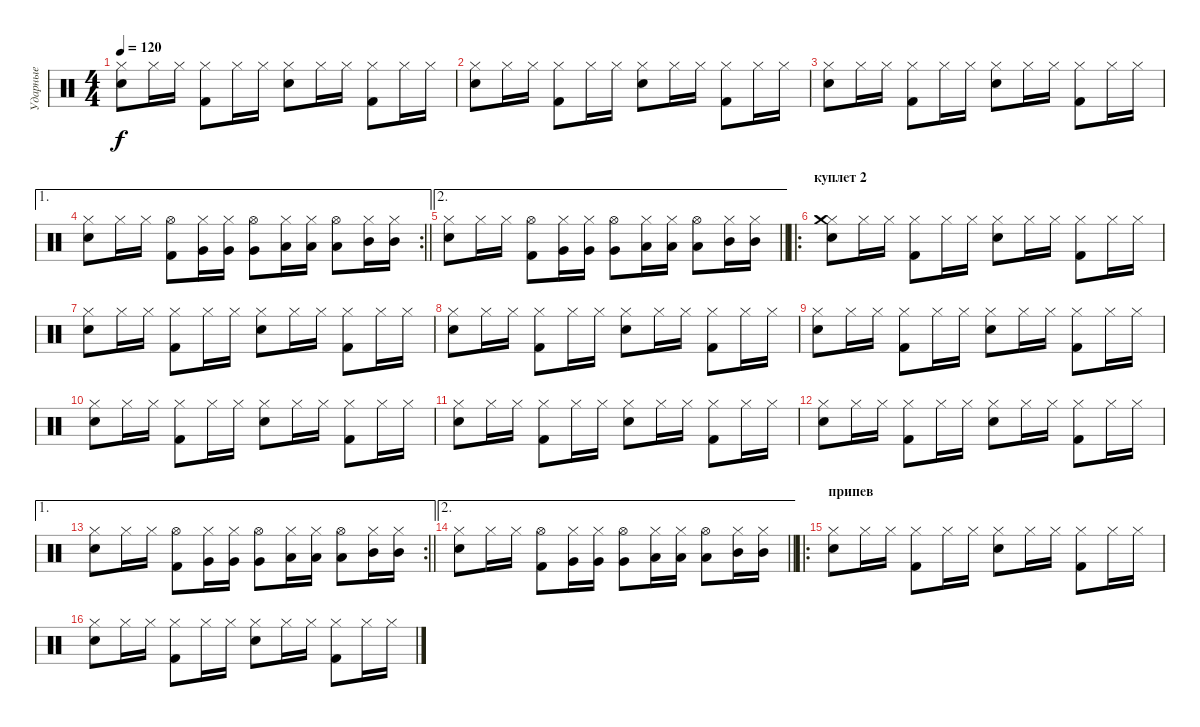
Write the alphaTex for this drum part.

\track ("Ударные" "Ударные") {instrument percussion}
\staff {score}
\articulation defaults
\ts (4 4)
\tempo 120
\clef neutral
\ks c
("Hi-Hat (closed)" "Snare (hit) 2").8{dy f} "Hi-Hat (closed)".16 "Hi-Hat (closed)".16 ("Hi-Hat (closed)" "Kick (hit) 2").8 "Hi-Hat (closed)".16 "Hi-Hat (closed)".16 ("Hi-Hat (closed)" "Snare (hit) 2").8 "Hi-Hat (closed)".16 "Hi-Hat (closed)".16 ("Hi-Hat (closed)" "Kick (hit) 2").8 "Hi-Hat (closed)".16 "Hi-Hat (closed)".16 |
("Hi-Hat (closed)" "Snare (hit) 2").8 "Hi-Hat (closed)".16 "Hi-Hat (closed)".16 ("Hi-Hat (closed)" "Kick (hit) 2").8 "Hi-Hat (closed)".16 "Hi-Hat (closed)".16 ("Hi-Hat (closed)" "Snare (hit) 2").8 "Hi-Hat (closed)".16 "Hi-Hat (closed)".16 ("Hi-Hat (closed)" "Kick (hit) 2").8 "Hi-Hat (closed)".16 "Hi-Hat (closed)".16 |
("Hi-Hat (closed)" "Snare (hit) 2").8 "Hi-Hat (closed)".16 "Hi-Hat (closed)".16 ("Hi-Hat (closed)" "Kick (hit) 2").8 "Hi-Hat (closed)".16 "Hi-Hat (closed)".16 ("Hi-Hat (closed)" "Snare (hit) 2").8 "Hi-Hat (closed)".16 "Hi-Hat (closed)".16 ("Hi-Hat (closed)" "Kick (hit) 2").8 "Hi-Hat (closed)".16 "Hi-Hat (closed)".16 |
\ae 1
\rc 2
\barLineRight lightlight
("Hi-Hat (closed)" "Snare (hit) 2").8 "Hi-Hat (closed)".16 "Hi-Hat (closed)".16 ("Hi-Hat (open)" "Kick (hit) 2").8 ("Hi-Hat (closed)" "Very Low Tom (hit)").16 ("Hi-Hat (closed)" "Very Low Tom (hit)").16 ("Hi-Hat (open)" "Very Low Tom (hit)").8 ("Hi-Hat (closed)" "Low Tom (hit)").16 ("Hi-Hat (closed)" "Low Tom (hit)").16 ("Hi-Hat (open)" "Low Tom (hit)").8 ("Hi-Hat (closed)" "Mid Tom (hit)").16 ("Hi-Hat (closed)" "Mid Tom (hit)").16 |
\ae 2
\barLineRight lightlight
("Hi-Hat (closed)" "Snare (hit) 2").8 "Hi-Hat (closed)".16 "Hi-Hat (closed)".16 ("Hi-Hat (open)" "Kick (hit) 2").8 ("Hi-Hat (closed)" "Very Low Tom (hit)").16 ("Hi-Hat (closed)" "Very Low Tom (hit)").16 ("Hi-Hat (open)" "Very Low Tom (hit)").8 ("Hi-Hat (closed)" "Low Tom (hit)").16 ("Hi-Hat (closed)" "Low Tom (hit)").16 ("Hi-Hat (open)" "Low Tom (hit)").8 ("Hi-Hat (closed)" "Mid Tom (hit)").16 ("Hi-Hat (closed)" "Mid Tom (hit)").16 |
\ro
\section ("" "куплет 2")
("Hi-Hat (closed)" "Snare (hit) 2" "Crash medium (hit)").8 "Hi-Hat (closed)".16 "Hi-Hat (closed)".16 ("Hi-Hat (closed)" "Kick (hit) 2").8 "Hi-Hat (closed)".16 "Hi-Hat (closed)".16 ("Hi-Hat (closed)" "Snare (hit) 2").8 "Hi-Hat (closed)".16 "Hi-Hat (closed)".16 ("Hi-Hat (closed)" "Kick (hit) 2").8 "Hi-Hat (closed)".16 "Hi-Hat (closed)".16 |
("Hi-Hat (closed)" "Snare (hit) 2").8 "Hi-Hat (closed)".16 "Hi-Hat (closed)".16 ("Hi-Hat (closed)" "Kick (hit) 2").8 "Hi-Hat (closed)".16 "Hi-Hat (closed)".16 ("Hi-Hat (closed)" "Snare (hit) 2").8 "Hi-Hat (closed)".16 "Hi-Hat (closed)".16 ("Hi-Hat (closed)" "Kick (hit) 2").8 "Hi-Hat (closed)".16 "Hi-Hat (closed)".16 |
("Hi-Hat (closed)" "Snare (hit) 2").8 "Hi-Hat (closed)".16 "Hi-Hat (closed)".16 ("Hi-Hat (closed)" "Kick (hit) 2").8 "Hi-Hat (closed)".16 "Hi-Hat (closed)".16 ("Hi-Hat (closed)" "Snare (hit) 2").8 "Hi-Hat (closed)".16 "Hi-Hat (closed)".16 ("Hi-Hat (closed)" "Kick (hit) 2").8 "Hi-Hat (closed)".16 "Hi-Hat (closed)".16 |
("Hi-Hat (closed)" "Snare (hit) 2").8 "Hi-Hat (closed)".16 "Hi-Hat (closed)".16 ("Hi-Hat (closed)" "Kick (hit) 2").8 "Hi-Hat (closed)".16 "Hi-Hat (closed)".16 ("Hi-Hat (closed)" "Snare (hit) 2").8 "Hi-Hat (closed)".16 "Hi-Hat (closed)".16 ("Hi-Hat (closed)" "Kick (hit) 2").8 "Hi-Hat (closed)".16 "Hi-Hat (closed)".16 |
("Hi-Hat (closed)" "Snare (hit) 2").8 "Hi-Hat (closed)".16 "Hi-Hat (closed)".16 ("Hi-Hat (closed)" "Kick (hit) 2").8 "Hi-Hat (closed)".16 "Hi-Hat (closed)".16 ("Hi-Hat (closed)" "Snare (hit) 2").8 "Hi-Hat (closed)".16 "Hi-Hat (closed)".16 ("Hi-Hat (closed)" "Kick (hit) 2").8 "Hi-Hat (closed)".16 "Hi-Hat (closed)".16 |
("Hi-Hat (closed)" "Snare (hit) 2").8 "Hi-Hat (closed)".16 "Hi-Hat (closed)".16 ("Hi-Hat (closed)" "Kick (hit) 2").8 "Hi-Hat (closed)".16 "Hi-Hat (closed)".16 ("Hi-Hat (closed)" "Snare (hit) 2").8 "Hi-Hat (closed)".16 "Hi-Hat (closed)".16 ("Hi-Hat (closed)" "Kick (hit) 2").8 "Hi-Hat (closed)".16 "Hi-Hat (closed)".16 |
("Hi-Hat (closed)" "Snare (hit) 2").8 "Hi-Hat (closed)".16 "Hi-Hat (closed)".16 ("Hi-Hat (closed)" "Kick (hit) 2").8 "Hi-Hat (closed)".16 "Hi-Hat (closed)".16 ("Hi-Hat (closed)" "Snare (hit) 2").8 "Hi-Hat (closed)".16 "Hi-Hat (closed)".16 ("Hi-Hat (closed)" "Kick (hit) 2").8 "Hi-Hat (closed)".16 "Hi-Hat (closed)".16 |
\ae 1
\rc 2
\barLineRight lightlight
("Hi-Hat (closed)" "Snare (hit) 2").8 "Hi-Hat (closed)".16 "Hi-Hat (closed)".16 ("Hi-Hat (open)" "Kick (hit) 2").8 ("Hi-Hat (closed)" "Very Low Tom (hit)").16 ("Hi-Hat (closed)" "Very Low Tom (hit)").16 ("Hi-Hat (open)" "Very Low Tom (hit)").8 ("Hi-Hat (closed)" "Low Tom (hit)").16 ("Hi-Hat (closed)" "Low Tom (hit)").16 ("Hi-Hat (open)" "Low Tom (hit)").8 ("Hi-Hat (closed)" "Mid Tom (hit)").16 ("Hi-Hat (closed)" "Mid Tom (hit)").16 |
\ae 2
\barLineRight lightlight
("Hi-Hat (closed)" "Snare (hit) 2").8 "Hi-Hat (closed)".16 "Hi-Hat (closed)".16 ("Hi-Hat (open)" "Kick (hit) 2").8 ("Hi-Hat (closed)" "Very Low Tom (hit)").16 ("Hi-Hat (closed)" "Very Low Tom (hit)").16 ("Hi-Hat (open)" "Very Low Tom (hit)").8 ("Hi-Hat (closed)" "Low Tom (hit)").16 ("Hi-Hat (closed)" "Low Tom (hit)").16 ("Hi-Hat (open)" "Low Tom (hit)").8 ("Hi-Hat (closed)" "Mid Tom (hit)").16 ("Hi-Hat (closed)" "Mid Tom (hit)").16 |
\ro
\section ("" "припев")
("Hi-Hat (closed)" "Snare (hit) 2").8 "Hi-Hat (closed)".16 "Hi-Hat (closed)".16 ("Hi-Hat (closed)" "Kick (hit) 2").8 "Hi-Hat (closed)".16 "Hi-Hat (closed)".16 ("Hi-Hat (closed)" "Snare (hit) 2").8 "Hi-Hat (closed)".16 "Hi-Hat (closed)".16 ("Hi-Hat (closed)" "Kick (hit) 2").8 "Hi-Hat (closed)".16 "Hi-Hat (closed)".16 |
("Hi-Hat (closed)" "Snare (hit) 2").8 "Hi-Hat (closed)".16 "Hi-Hat (closed)".16 ("Hi-Hat (closed)" "Kick (hit) 2").8 "Hi-Hat (closed)".16 "Hi-Hat (closed)".16 ("Hi-Hat (closed)" "Snare (hit) 2").8 "Hi-Hat (closed)".16 "Hi-Hat (closed)".16 ("Hi-Hat (closed)" "Kick (hit) 2").8 "Hi-Hat (closed)".16 "Hi-Hat (closed)".16
